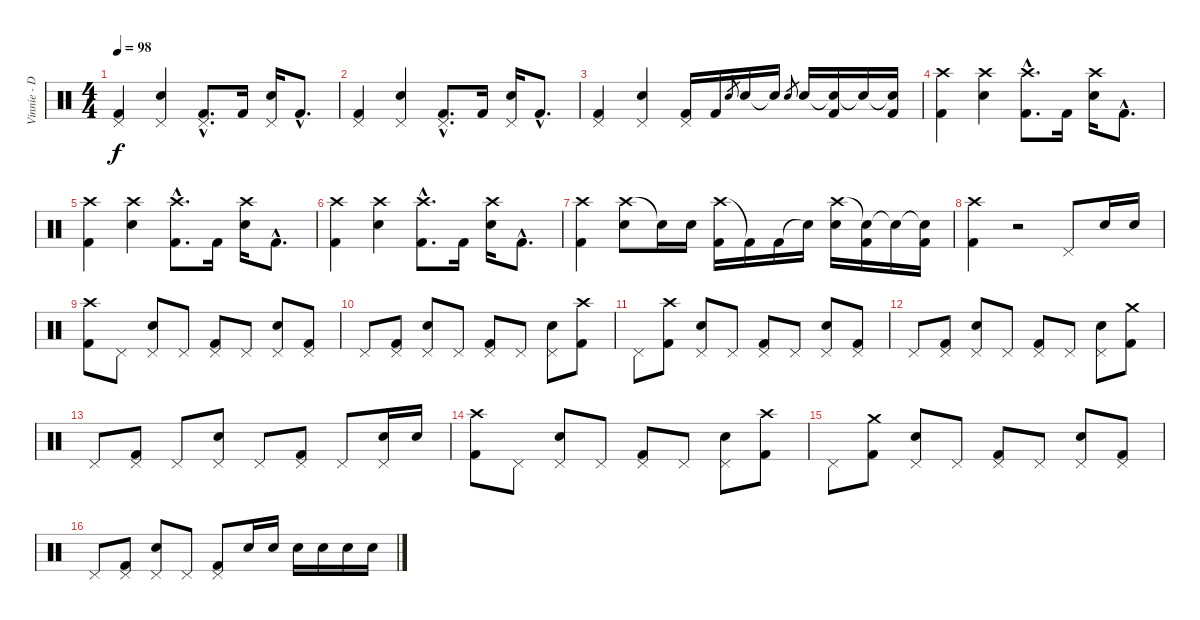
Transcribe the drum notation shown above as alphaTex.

\track ("Vinnie - Drums" "Vinnie - D") {instrument percussion}
\staff {score}
\articulation defaults
\ts (4 4)
\tempo 98
\clef neutral
\ks c
("Pedal Hi-Hat (hit)" "Kick (hit) 2").4{dy f} ("Pedal Hi-Hat (hit)" "Electric Snare (hit)").4 ("Pedal Hi-Hat (hit)"{hac} "Kick (hit) 2"{hac}).8{d} "Kick (hit) 2".16 ("Pedal Hi-Hat (hit)" "Electric Snare (hit)").16 "Kick (hit) 2"{hac}.8{d} |
("Pedal Hi-Hat (hit)" "Kick (hit) 2").4 ("Pedal Hi-Hat (hit)" "Electric Snare (hit)").4 ("Pedal Hi-Hat (hit)"{hac} "Kick (hit) 2"{hac}).8{d} "Kick (hit) 2".16 ("Pedal Hi-Hat (hit)" "Electric Snare (hit)").16 "Kick (hit) 2"{hac}.8{d} |
("Pedal Hi-Hat (hit)" "Kick (hit) 2").4 ("Pedal Hi-Hat (hit)" "Electric Snare (hit)").4 ("Pedal Hi-Hat (hit)" "Kick (hit) 2").16 "Kick (hit) 2".16 "Electric Snare (hit)".8{gr} "Electric Snare (hit)".16 "Electric Snare (hit)"{t}.16 "Electric Snare (hit)".8{gr} "Electric Snare (hit)".16 ("Snare (hit)"{t} "Kick (hit) 2").16 "Snare (hit)"{t}.16 ("Snare (hit)"{t} "Kick (hit) 2").16 |
("Crash high (hit)" "Kick (hit) 2").4 ("Crash high (hit)" "Electric Snare (hit)").4 ("Crash high (hit)"{hac} "Kick (hit) 2"{hac}).8{d} "Kick (hit) 2".16 ("Crash high (hit)" "Electric Snare (hit)").16 "Kick (hit) 2"{hac}.8{d} |
("Crash high (hit)" "Kick (hit) 2").4 ("Crash high (hit)" "Electric Snare (hit)").4 ("Crash high (hit)"{hac} "Kick (hit) 2"{hac}).8{d} "Kick (hit) 2".16 ("Crash high (hit)" "Electric Snare (hit)").16 "Kick (hit) 2"{hac}.8{d} |
("Crash high (hit)" "Kick (hit) 2").4 ("Crash high (hit)" "Electric Snare (hit)").4 ("Crash high (hit)"{hac} "Kick (hit) 2"{hac}).8{d} "Kick (hit) 2".16 ("Crash high (hit)" "Electric Snare (hit)").16 "Kick (hit) 2"{hac}.8{d} |
("Crash high (hit)" "Kick (hit) 2").4 ("Crash high (hit)" "Electric Snare (hit)").8 "Electric Snare (hit)"{t}.16 "Electric Snare (hit)".16 ("Crash high (hit)" "Kick (hit) 2").16 "Kick (hit) 2"{t}.16 "Kick (hit) 2".16 "Snare (hit)"{t}.16 ("Crash high (hit)" "Electric Snare (hit)").16 ("Snare (hit)"{t} "Kick (hit) 2").16 "Snare (hit)"{t}.16 ("Snare (hit)"{t} "Kick (hit) 2").16 |
("Crash high (hit)" "Kick (hit) 2").4 r.2 "Pedal Hi-Hat (hit)".8 "Electric Snare (hit)".16 "Electric Snare (hit)".16 |
("Crash high (hit)" "Kick (hit) 2").8 "Pedal Hi-Hat (hit)".8 ("Pedal Hi-Hat (hit)" "Electric Snare (hit)").8 "Pedal Hi-Hat (hit)".8 ("Pedal Hi-Hat (hit)" "Kick (hit) 2").8 "Pedal Hi-Hat (hit)".8 ("Pedal Hi-Hat (hit)" "Electric Snare (hit)").8 ("Pedal Hi-Hat (hit)" "Kick (hit) 2").8 |
"Pedal Hi-Hat (hit)".8 ("Pedal Hi-Hat (hit)" "Kick (hit) 2").8 ("Pedal Hi-Hat (hit)" "Electric Snare (hit)").8 "Pedal Hi-Hat (hit)".8 ("Pedal Hi-Hat (hit)" "Kick (hit) 2").8 "Pedal Hi-Hat (hit)".8 ("Pedal Hi-Hat (hit)" "Electric Snare (hit)").8 ("Crash high (hit)" "Kick (hit) 2").8 |
"Pedal Hi-Hat (hit)".8 ("Crash high (hit)" "Kick (hit) 2").8 ("Pedal Hi-Hat (hit)" "Electric Snare (hit)").8 "Pedal Hi-Hat (hit)".8 ("Pedal Hi-Hat (hit)" "Kick (hit) 2").8 "Pedal Hi-Hat (hit)".8 ("Pedal Hi-Hat (hit)" "Electric Snare (hit)").8 ("Pedal Hi-Hat (hit)" "Kick (hit) 2").8 |
"Pedal Hi-Hat (hit)".8 ("Pedal Hi-Hat (hit)" "Kick (hit) 2").8 ("Pedal Hi-Hat (hit)" "Electric Snare (hit)").8 "Pedal Hi-Hat (hit)".8 ("Pedal Hi-Hat (hit)" "Kick (hit) 2").8 "Pedal Hi-Hat (hit)".8 ("Pedal Hi-Hat (hit)" "Electric Snare (hit)").8 ("Crash medium (hit)" "Kick (hit) 2").8 |
"Pedal Hi-Hat (hit)".8 ("Pedal Hi-Hat (hit)" "Kick (hit) 2").8 "Pedal Hi-Hat (hit)".8 ("Pedal Hi-Hat (hit)" "Electric Snare (hit)").8 "Pedal Hi-Hat (hit)".8 ("Pedal Hi-Hat (hit)" "Kick (hit) 2").8 "Pedal Hi-Hat (hit)".8 ("Pedal Hi-Hat (hit)" "Electric Snare (hit)").16 "Electric Snare (hit)".16 |
("Crash high (hit)" "Kick (hit) 2").8 "Pedal Hi-Hat (hit)".8 ("Pedal Hi-Hat (hit)" "Electric Snare (hit)").8 "Pedal Hi-Hat (hit)".8 ("Pedal Hi-Hat (hit)" "Kick (hit) 2").8 "Pedal Hi-Hat (hit)".8 ("Pedal Hi-Hat (hit)" "Electric Snare (hit)").8 ("Crash high (hit)" "Kick (hit) 2").8 |
"Pedal Hi-Hat (hit)".8 ("Crash medium (hit)" "Kick (hit) 2").8 ("Pedal Hi-Hat (hit)" "Electric Snare (hit)").8 "Pedal Hi-Hat (hit)".8 ("Pedal Hi-Hat (hit)" "Kick (hit) 2").8 "Pedal Hi-Hat (hit)".8 ("Pedal Hi-Hat (hit)" "Electric Snare (hit)").8 ("Pedal Hi-Hat (hit)" "Kick (hit) 2").8 |
"Pedal Hi-Hat (hit)".8 ("Pedal Hi-Hat (hit)" "Kick (hit) 2").8 ("Pedal Hi-Hat (hit)" "Electric Snare (hit)").8 "Pedal Hi-Hat (hit)".8 ("Pedal Hi-Hat (hit)" "Kick (hit) 2").8 "Electric Snare (hit)".16 "Electric Snare (hit)".16 "Electric Snare (hit)".16 "Electric Snare (hit)".16 "Electric Snare (hit)".16 "Electric Snare (hit)".16
